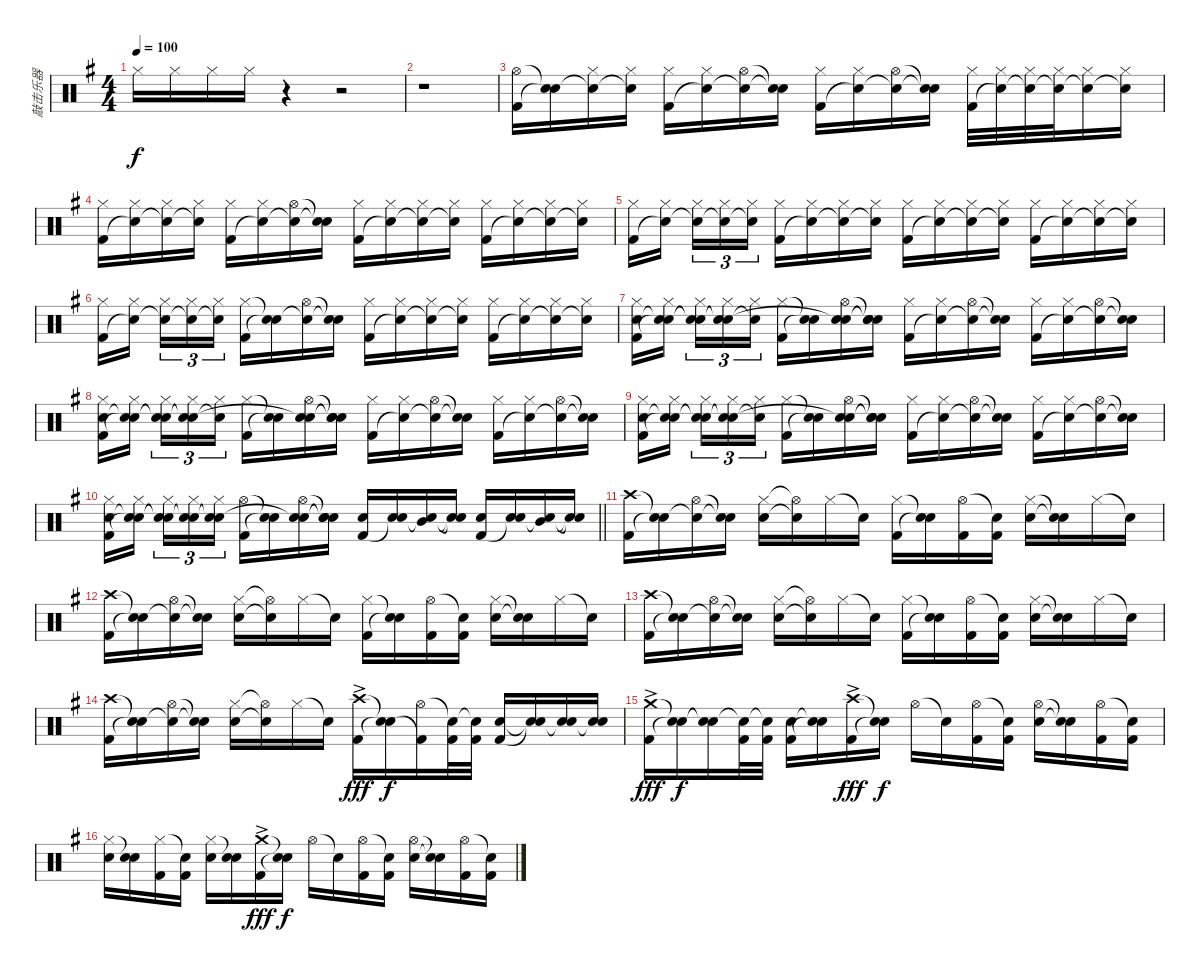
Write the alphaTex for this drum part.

\track ("敲击乐器" "敲击乐器") {instrument percussion}
\staff {score}
\articulation defaults
\ts (4 4)
\tempo 100
\clef neutral
\ks eminor "Hi-Hat (closed)".16{dy f} "Hi-Hat (closed)".16 "Hi-Hat (closed)".16 "Hi-Hat (closed)".16
r.4 r.2 |
r.1 |
("Hi-Hat (open)" "Kick (hit) 2").16 ("Snare (hit)"{t} "Snare (hit)"{t}).16 ("Hi-Hat (closed)" "Snare (hit)"{t}).16 ("Hi-Hat (closed)" "Snare (hit)"{t}).16 ("Hi-Hat (closed)" "Kick (hit) 2").16 ("Hi-Hat (closed)" "Snare (hit)"{t}).16 ("Hi-Hat (open)" "Snare (hit)"{t}).16 ("Snare (hit)"{t} "Snare (hit)"{t}).16 ("Hi-Hat (closed)" "Kick (hit) 2").16 ("Hi-Hat (closed)" "Snare (hit)"{t}).16 ("Hi-Hat (open)" "Snare (hit)"{t}).16 ("Snare (hit)"{t} "Snare (hit)"{t}).16 ("Hi-Hat (closed)" "Kick (hit) 2").32 ("Hi-Hat (closed)" "Snare (hit)"{t}).32 ("Hi-Hat (closed)" "Snare (hit)"{t}).32 ("Hi-Hat (closed)" "Snare (hit)"{t}).32 ("Hi-Hat (closed)" "Snare (hit)"{t}).16 ("Hi-Hat (closed)" "Snare (hit)"{t}).16 |
("Hi-Hat (closed)" "Kick (hit) 2").16 ("Hi-Hat (closed)" "Snare (hit)"{t}).16 ("Hi-Hat (closed)" "Snare (hit)"{t}).16 ("Hi-Hat (closed)" "Snare (hit)"{t}).16 ("Hi-Hat (closed)" "Kick (hit) 2").16 ("Hi-Hat (closed)" "Snare (hit)"{t}).16 ("Hi-Hat (open)" "Snare (hit)"{t}).16 ("Snare (hit)"{t} "Snare (hit)"{t}).16 ("Hi-Hat (closed)" "Kick (hit) 2").16 ("Hi-Hat (closed)" "Snare (hit)"{t}).16 ("Hi-Hat (closed)" "Snare (hit)"{t}).16 ("Hi-Hat (closed)" "Snare (hit)"{t}).16 ("Hi-Hat (closed)" "Kick (hit) 2").16 ("Hi-Hat (closed)" "Snare (hit)"{t}).16 ("Hi-Hat (closed)" "Snare (hit)"{t}).16 ("Hi-Hat (closed)" "Snare (hit)"{t}).16 |
("Hi-Hat (closed)" "Kick (hit) 2").16 ("Hi-Hat (closed)" "Snare (hit)"{t}).16{beam splitsecondary} ("Hi-Hat (closed)" "Snare (hit)"{t}).16{tu (3 2)} ("Hi-Hat (closed)" "Snare (hit)"{t}).16{tu (3 2)} ("Hi-Hat (closed)" "Snare (hit)"{t}).16{tu (3 2)} ("Hi-Hat (closed)" "Kick (hit) 2").16 ("Hi-Hat (closed)" "Snare (hit)"{t}).16 ("Hi-Hat (closed)" "Snare (hit)"{t}).16 ("Hi-Hat (closed)" "Snare (hit)"{t}).16 ("Hi-Hat (closed)" "Kick (hit) 2").16 ("Hi-Hat (closed)" "Snare (hit)"{t}).16 ("Hi-Hat (closed)" "Snare (hit)"{t}).16 ("Hi-Hat (closed)" "Snare (hit)"{t}).16 ("Hi-Hat (closed)" "Kick (hit) 2").16 ("Hi-Hat (closed)" "Snare (hit)"{t}).16 ("Hi-Hat (closed)" "Snare (hit)"{t}).16 ("Hi-Hat (closed)" "Snare (hit)"{t}).16 |
("Hi-Hat (closed)" "Kick (hit) 2").16 ("Hi-Hat (closed)" "Snare (hit)"{t}).16{beam splitsecondary} ("Hi-Hat (closed)" "Snare (hit)"{t}).16{tu (3 2)} ("Hi-Hat (closed)" "Snare (hit)"{t}).16{tu (3 2)} ("Hi-Hat (closed)" "Snare (hit)"{t}).16{tu (3 2)} ("Hi-Hat (closed)" "Kick (hit) 2").16 ("Snare (hit)"{t} "Snare (hit)"{t}).16 ("Hi-Hat (open)" "Snare (hit)"{t}).16 ("Snare (hit)"{t} "Snare (hit)"{t}).16 ("Hi-Hat (closed)" "Kick (hit) 2").16 ("Hi-Hat (closed)" "Snare (hit)"{t}).16 ("Hi-Hat (closed)" "Snare (hit)"{t}).16 ("Hi-Hat (closed)" "Snare (hit)"{t}).16 ("Hi-Hat (closed)" "Kick (hit) 2").16 ("Hi-Hat (closed)" "Snare (hit)"{t}).16 ("Hi-Hat (closed)" "Snare (hit)"{t}).16 ("Hi-Hat (closed)" "Snare (hit)"{t}).16 |
("Hi-Hat (closed)" "Snare (hit) 2" "Kick (hit) 2").16 ("Hi-Hat (closed)" "Snare (hit)"{t} "Snare (hit)"{t}).16{beam splitsecondary} ("Hi-Hat (closed)" "Snare (hit)"{t} "Snare (hit)"{t}).16{tu (3 2)} ("Hi-Hat (closed)" "Snare (hit)"{t} "Snare (hit)"{t}).16{tu (3 2)} ("Hi-Hat (closed)" "Snare (hit)"{t}).16{tu (3 2)} ("Hi-Hat (closed)" "Kick (hit) 2").16 ("Snare (hit)"{t} "Snare (hit)"{t}).16 ("Hi-Hat (open)" "Snare (hit) 2" "Snare (hit)"{t}).16 ("Snare (hit)"{t} "Snare (hit)"{t} "Snare (hit)"{t}).16 ("Hi-Hat (closed)" "Kick (hit) 2").16 ("Hi-Hat (closed)" "Snare (hit)"{t}).16 ("Hi-Hat (open)" "Snare (hit)"{t}).16 ("Snare (hit)"{t} "Snare (hit)"{t}).16 ("Hi-Hat (closed)" "Kick (hit) 2").16 ("Hi-Hat (closed)" "Snare (hit)"{t}).16 ("Hi-Hat (open)" "Snare (hit)"{t}).16 ("Snare (hit)"{t} "Snare (hit)"{t}).16 |
("Hi-Hat (closed)" "Snare (hit) 2" "Kick (hit) 2").16 ("Hi-Hat (closed)" "Snare (hit)"{t} "Snare (hit)"{t}).16{beam splitsecondary} ("Hi-Hat (closed)" "Snare (hit)"{t} "Snare (hit)"{t}).16{tu (3 2)} ("Hi-Hat (closed)" "Snare (hit)"{t} "Snare (hit)"{t}).16{tu (3 2)} ("Hi-Hat (closed)" "Snare (hit)"{t}).16{tu (3 2)} ("Hi-Hat (closed)" "Kick (hit) 2").16 ("Snare (hit)"{t} "Snare (hit)"{t}).16 ("Hi-Hat (open)" "Snare (hit) 2" "Snare (hit)"{t}).16 ("Snare (hit)"{t} "Snare (hit)"{t} "Snare (hit)"{t}).16 ("Hi-Hat (closed)" "Kick (hit) 2").16 ("Hi-Hat (closed)" "Snare (hit)"{t}).16 ("Hi-Hat (open)" "Snare (hit)"{t}).16 ("Snare (hit)"{t} "Snare (hit)"{t}).16 ("Hi-Hat (closed)" "Kick (hit) 2").16 ("Hi-Hat (closed)" "Snare (hit)"{t}).16 ("Hi-Hat (open)" "Snare (hit)"{t}).16 ("Snare (hit)"{t} "Snare (hit)"{t}).16 |
("Hi-Hat (closed)" "Snare (hit) 2" "Kick (hit) 2").16 ("Hi-Hat (closed)" "Snare (hit)"{t} "Snare (hit)"{t}).16{beam splitsecondary} ("Hi-Hat (closed)" "Snare (hit)"{t} "Snare (hit)"{t}).16{tu (3 2)} ("Hi-Hat (closed)" "Snare (hit)"{t} "Snare (hit)"{t}).16{tu (3 2)} ("Hi-Hat (closed)" "Snare (hit)"{t}).16{tu (3 2)} ("Hi-Hat (closed)" "Kick (hit) 2").16 ("Snare (hit)"{t} "Snare (hit)"{t}).16 ("Hi-Hat (open)" "Snare (hit) 2" "Snare (hit)"{t}).16 ("Snare (hit)"{t} "Snare (hit)"{t} "Snare (hit)"{t}).16 ("Hi-Hat (closed)" "Kick (hit) 2").16 ("Hi-Hat (closed)" "Snare (hit)"{t}).16 ("Hi-Hat (open)" "Snare (hit)"{t}).16 ("Snare (hit)"{t} "Snare (hit)"{t}).16 ("Hi-Hat (closed)" "Kick (hit) 2").16 ("Hi-Hat (closed)" "Snare (hit)"{t}).16 ("Hi-Hat (open)" "Snare (hit)"{t}).16 ("Snare (hit)"{t} "Snare (hit)"{t}).16 |
\barLineRight lightlight
("Hi-Hat (closed)" "Snare (hit) 2" "Kick (hit) 2").16 ("Hi-Hat (closed)" "Snare (hit)"{t} "Snare (hit)"{t}).16{beam splitsecondary} ("Hi-Hat (closed)" "Snare (hit)"{t} "Snare (hit)"{t}).16{tu (3 2)} ("Hi-Hat (closed)" "Snare (hit)"{t} "Snare (hit)"{t}).16{tu (3 2)} ("Hi-Hat (closed)" "Snare (hit)"{t} "Snare (hit)"{t}).16{tu (3 2)} ("Hi-Hat (open)" "Kick (hit) 2").16 ("Snare (hit)"{t} "Snare (hit)"{t}).16 ("Hi-Hat (open)" "Snare (hit) 2" "Snare (hit)"{t}).16 ("Snare (hit)"{t} "Snare (hit)"{t} "Snare (hit)"{t}).16 ("Snare (hit) 2" "Kick (hit) 2").16 ("Snare (hit) 2" "Snare (hit)"{t}).16 ("Mid Tom (hit)" "Snare (hit)"{t}).16 ("Snare (hit)"{t} "Snare (hit)"{t}).16 ("Snare (hit) 2" "Kick (hit) 2").16 ("Snare (hit) 2" "Snare (hit)"{t}).16 ("Mid Tom (hit)" "Snare (hit)"{t}).16 ("Snare (hit)"{t} "Snare (hit)"{t}).16 |
("Crash high (hit)" "Kick (hit) 2").16 ("Snare (hit)"{t} "Snare (hit)"{t}).16 ("Hi-Hat (open)" "Snare (hit)"{t}).16 ("Snare (hit)"{t} "Snare (hit)"{t}).16 ("Hi-Hat (closed)" "Snare (hit) 2").16 ("Hi-Hat (open)"{t} "Snare (hit)"{t}).16 "Hi-Hat (closed)".16 "Snare (hit)"{t}.16 ("Hi-Hat (closed)" "Kick (hit) 2").16 ("Snare (hit)"{t} "Snare (hit)"{t}).16 ("Hi-Hat (open)" "Kick (hit) 2").16 ("Snare (hit)"{t} "Kick (hit) 2").16 ("Hi-Hat (closed)" "Snare (hit) 2").16 ("Snare (hit)"{t} "Snare (hit)"{t}).16 "Hi-Hat (closed)".16 "Snare (hit)"{t}.16 |
("Crash high (hit)" "Kick (hit) 2").16 ("Snare (hit)"{t} "Snare (hit)"{t}).16 ("Hi-Hat (open)" "Snare (hit)"{t}).16 ("Snare (hit)"{t} "Snare (hit)"{t}).16 ("Hi-Hat (closed)" "Snare (hit) 2").16 ("Hi-Hat (open)"{t} "Snare (hit)"{t}).16 "Hi-Hat (closed)".16 "Snare (hit)"{t}.16 ("Hi-Hat (closed)" "Kick (hit) 2").16 ("Snare (hit)"{t} "Snare (hit)"{t}).16 ("Hi-Hat (open)" "Kick (hit) 2").16 ("Snare (hit)"{t} "Kick (hit) 2").16 ("Hi-Hat (closed)" "Snare (hit) 2").16 ("Snare (hit)"{t} "Snare (hit)"{t}).16 "Hi-Hat (closed)".16 "Snare (hit)"{t}.16 |
("Crash high (hit)" "Kick (hit) 2").16 ("Snare (hit)"{t} "Snare (hit)"{t}).16 ("Hi-Hat (open)" "Snare (hit)"{t}).16 ("Snare (hit)"{t} "Snare (hit)"{t}).16 ("Hi-Hat (closed)" "Snare (hit) 2").16 ("Hi-Hat (open)"{t} "Snare (hit)"{t}).16 "Hi-Hat (closed)".16 "Snare (hit)"{t}.16 ("Hi-Hat (closed)" "Kick (hit) 2").16 ("Snare (hit)"{t} "Snare (hit)"{t}).16 ("Hi-Hat (open)" "Kick (hit) 2").16 ("Snare (hit)"{t} "Kick (hit) 2").16 ("Hi-Hat (closed)" "Snare (hit) 2").16 ("Snare (hit)"{t} "Snare (hit)"{t}).16 "Hi-Hat (closed)".16 "Snare (hit)"{t}.16 |
("Crash high (hit)" "Kick (hit) 2").16 ("Snare (hit)"{t} "Snare (hit)"{t}).16 ("Hi-Hat (open)" "Snare (hit)"{t}).16 ("Snare (hit)"{t} "Snare (hit)"{t}).16 ("Hi-Hat (closed)" "Snare (hit) 2").16 ("Hi-Hat (open)"{t} "Snare (hit)"{t}).16 "Hi-Hat (closed)".16 "Snare (hit)"{t}.16 ("Crash high (hit)"{ac} "Kick (hit) 2").16{dy fff} ("Snare (hit)"{t} "Snare (hit)"{t}).16{dy f} ("Hi-Hat (open)" "Kick (hit) 2"{t}).16 ("Snare (hit)"{t} "Kick (hit) 2").32 ("Snare (hit)"{t} "Kick (hit) 2").32 ("Snare (hit) 2" "Kick (hit) 2").16 ("Snare (hit)"{t} "Snare (hit)"{t}).16 ("Snare (hit) 2" "Snare (hit)"{t}).16 ("Snare (hit) 2" "Snare (hit)"{t}).16 |
("Crash medium (hit)"{ac} "Kick (hit) 2").16{dy fff} ("Snare (hit)"{t} "Snare (hit)"{t}).16{dy f} ("Snare (hit)"{t} "Snare (hit)"{t}).16 ("Snare (hit)"{t} "Kick (hit) 2").32 ("Snare (hit)"{t} "Kick (hit) 2").32 ("Snare (hit) 2" "Kick (hit) 2").16 ("Snare (hit)"{t} "Snare (hit)"{t}).16 ("Crash high (hit)"{ac} "Kick (hit) 2").16{dy fff} ("Snare (hit)"{t} "Snare (hit)"{t}).16{dy f} "Hi-Hat (open)".16 "Snare (hit)"{t}.16 ("Hi-Hat (open)" "Kick (hit) 2").16 ("Snare (hit)"{t} "Kick (hit) 2").16 ("Hi-Hat (open)" "Snare (hit) 2").16 ("Snare (hit)"{t} "Snare (hit)"{t}).16 ("Hi-Hat (open)" "Kick (hit) 2").16 ("Snare (hit)"{t} "Kick (hit) 2").16 |
("Hi-Hat (closed)" "Snare (hit) 2").16 ("Snare (hit)"{t} "Snare (hit) 2").16 ("Hi-Hat (closed)" "Kick (hit) 2").16 ("Snare (hit)"{t} "Kick (hit) 2").16 ("Hi-Hat (closed)" "Snare (hit) 2").16 ("Snare (hit)"{t} "Snare (hit) 2").16 ("Crash medium (hit)"{ac} "Kick (hit) 2").16{dy fff} ("Snare (hit)"{t} "Snare (hit)"{t}).16{dy f} "Hi-Hat (open)".16 "Snare (hit)"{t}.16 ("Hi-Hat (open)" "Kick (hit) 2").16 ("Snare (hit)"{t} "Kick (hit) 2").16 ("Hi-Hat (open)" "Snare (hit) 2").16 ("Snare (hit)"{t} "Snare (hit)"{t}).16 ("Hi-Hat (open)" "Kick (hit) 2").16 ("Snare (hit)"{t} "Kick (hit) 2").16
